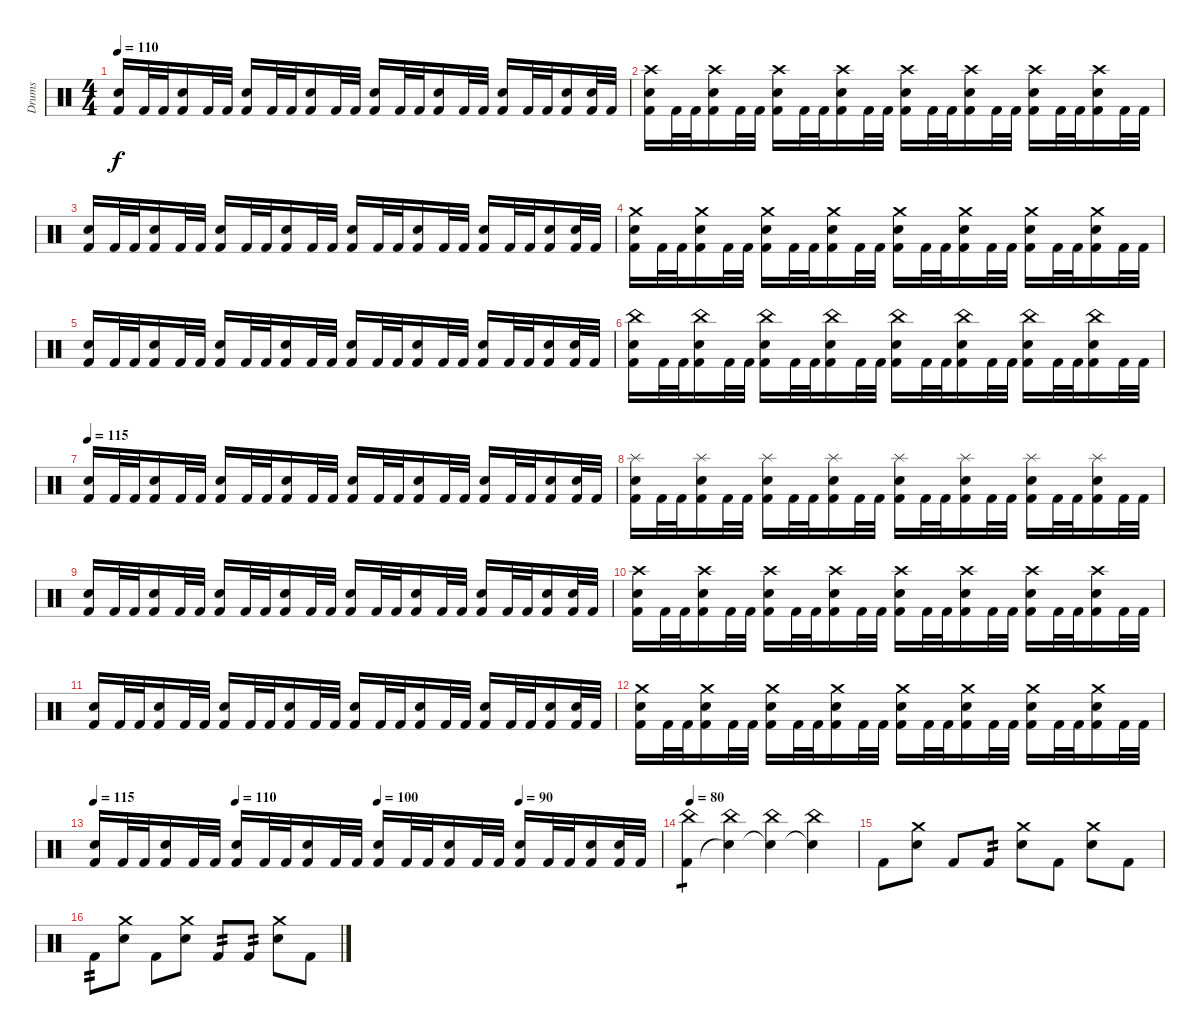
\track ("Drums" "Drums") {instrument percussion}
\staff {score}
\articulation defaults
\ts (4 4)
\tempo 110
\clef neutral
\ks c
("Electric Snare (hit)" "Kick (hit) 2").16{dy f} "Kick (hit) 2".32 "Kick (hit) 2".32 ("Electric Snare (hit)" "Kick (hit) 2").16 "Kick (hit) 2".32 "Kick (hit) 2".32 ("Electric Snare (hit)" "Kick (hit) 2").16 "Kick (hit) 2".32 "Kick (hit) 2".32 ("Electric Snare (hit)" "Kick (hit) 2").16 "Kick (hit) 2".32 "Kick (hit) 2".32 ("Electric Snare (hit)" "Kick (hit) 2").16 "Kick (hit) 2".32 "Kick (hit) 2".32 ("Electric Snare (hit)" "Kick (hit) 2").16 "Kick (hit) 2".32 "Kick (hit) 2".32 ("Electric Snare (hit)" "Kick (hit) 2").16 "Kick (hit) 2".32 "Kick (hit) 2".32 ("Electric Snare (hit)" "Kick (hit) 2").16 ("Electric Snare (hit)" "Kick (hit) 2").32 "Kick (hit) 2".32 |
("Crash high (hit)" "Electric Snare (hit)" "Kick (hit) 2").16 "Kick (hit) 2".32 "Kick (hit) 2".32 ("Crash high (hit)" "Electric Snare (hit)" "Kick (hit) 2").16 "Kick (hit) 2".32 "Kick (hit) 2".32 ("Crash high (hit)" "Electric Snare (hit)" "Kick (hit) 2").16 "Kick (hit) 2".32 "Kick (hit) 2".32 ("Crash high (hit)" "Electric Snare (hit)" "Kick (hit) 2").16 "Kick (hit) 2".32 "Kick (hit) 2".32 ("Crash high (hit)" "Electric Snare (hit)" "Kick (hit) 2").16 "Kick (hit) 2".32 "Kick (hit) 2".32 ("Crash high (hit)" "Electric Snare (hit)" "Kick (hit) 2").16 "Kick (hit) 2".32 "Kick (hit) 2".32 ("Crash high (hit)" "Electric Snare (hit)" "Kick (hit) 2").16 "Kick (hit) 2".32 "Kick (hit) 2".32 ("Crash high (hit)" "Electric Snare (hit)" "Kick (hit) 2").16 "Kick (hit) 2".32 "Kick (hit) 2".32 |
("Electric Snare (hit)" "Kick (hit) 2").16 "Kick (hit) 2".32 "Kick (hit) 2".32 ("Electric Snare (hit)" "Kick (hit) 2").16 "Kick (hit) 2".32 "Kick (hit) 2".32 ("Electric Snare (hit)" "Kick (hit) 2").16 "Kick (hit) 2".32 "Kick (hit) 2".32 ("Electric Snare (hit)" "Kick (hit) 2").16 "Kick (hit) 2".32 "Kick (hit) 2".32 ("Electric Snare (hit)" "Kick (hit) 2").16 "Kick (hit) 2".32 "Kick (hit) 2".32 ("Electric Snare (hit)" "Kick (hit) 2").16 "Kick (hit) 2".32 "Kick (hit) 2".32 ("Electric Snare (hit)" "Kick (hit) 2").16 "Kick (hit) 2".32 "Kick (hit) 2".32 ("Electric Snare (hit)" "Kick (hit) 2").16 ("Electric Snare (hit)" "Kick (hit) 2").32 "Kick (hit) 2".32 |
("Crash medium (hit)" "Electric Snare (hit)" "Kick (hit) 2").16 "Kick (hit) 2".32 "Kick (hit) 2".32 ("Crash medium (hit)" "Electric Snare (hit)" "Kick (hit) 2").16 "Kick (hit) 2".32 "Kick (hit) 2".32 ("Crash medium (hit)" "Electric Snare (hit)" "Kick (hit) 2").16 "Kick (hit) 2".32 "Kick (hit) 2".32 ("Crash medium (hit)" "Electric Snare (hit)" "Kick (hit) 2").16 "Kick (hit) 2".32 "Kick (hit) 2".32 ("Crash medium (hit)" "Electric Snare (hit)" "Kick (hit) 2").16 "Kick (hit) 2".32 "Kick (hit) 2".32 ("Crash medium (hit)" "Electric Snare (hit)" "Kick (hit) 2").16 "Kick (hit) 2".32 "Kick (hit) 2".32 ("Crash medium (hit)" "Electric Snare (hit)" "Kick (hit) 2").16 "Kick (hit) 2".32 "Kick (hit) 2".32 ("Crash medium (hit)" "Electric Snare (hit)" "Kick (hit) 2").16 "Kick (hit) 2".32 "Kick (hit) 2".32 |
("Electric Snare (hit)" "Kick (hit) 2").16 "Kick (hit) 2".32 "Kick (hit) 2".32 ("Electric Snare (hit)" "Kick (hit) 2").16 "Kick (hit) 2".32 "Kick (hit) 2".32 ("Electric Snare (hit)" "Kick (hit) 2").16 "Kick (hit) 2".32 "Kick (hit) 2".32 ("Electric Snare (hit)" "Kick (hit) 2").16 "Kick (hit) 2".32 "Kick (hit) 2".32 ("Electric Snare (hit)" "Kick (hit) 2").16 "Kick (hit) 2".32 "Kick (hit) 2".32 ("Electric Snare (hit)" "Kick (hit) 2").16 "Kick (hit) 2".32 "Kick (hit) 2".32 ("Electric Snare (hit)" "Kick (hit) 2").16 "Kick (hit) 2".32 "Kick (hit) 2".32 ("Electric Snare (hit)" "Kick (hit) 2").16 ("Electric Snare (hit)" "Kick (hit) 2").32 "Kick (hit) 2".32 |
("China (hit)" "Electric Snare (hit)" "Kick (hit) 2").16 "Kick (hit) 2".32 "Kick (hit) 2".32 ("China (hit)" "Electric Snare (hit)" "Kick (hit) 2").16 "Kick (hit) 2".32 "Kick (hit) 2".32 ("China (hit)" "Electric Snare (hit)" "Kick (hit) 2").16 "Kick (hit) 2".32 "Kick (hit) 2".32 ("China (hit)" "Electric Snare (hit)" "Kick (hit) 2").16 "Kick (hit) 2".32 "Kick (hit) 2".32 ("China (hit)" "Electric Snare (hit)" "Kick (hit) 2").16 "Kick (hit) 2".32 "Kick (hit) 2".32 ("China (hit)" "Electric Snare (hit)" "Kick (hit) 2").16 "Kick (hit) 2".32 "Kick (hit) 2".32 ("China (hit)" "Electric Snare (hit)" "Kick (hit) 2").16 "Kick (hit) 2".32 "Kick (hit) 2".32 ("China (hit)" "Electric Snare (hit)" "Kick (hit) 2").16 "Kick (hit) 2".32 "Kick (hit) 2".32 |
\tempo 115
("Electric Snare (hit)" "Kick (hit) 2").16 "Kick (hit) 2".32 "Kick (hit) 2".32 ("Electric Snare (hit)" "Kick (hit) 2").16 "Kick (hit) 2".32 "Kick (hit) 2".32 ("Electric Snare (hit)" "Kick (hit) 2").16 "Kick (hit) 2".32 "Kick (hit) 2".32 ("Electric Snare (hit)" "Kick (hit) 2").16 "Kick (hit) 2".32 "Kick (hit) 2".32 ("Electric Snare (hit)" "Kick (hit) 2").16 "Kick (hit) 2".32 "Kick (hit) 2".32 ("Electric Snare (hit)" "Kick (hit) 2").16 "Kick (hit) 2".32 "Kick (hit) 2".32 ("Electric Snare (hit)" "Kick (hit) 2").16 "Kick (hit) 2".32 "Kick (hit) 2".32 ("Electric Snare (hit)" "Kick (hit) 2").16 ("Electric Snare (hit)" "Kick (hit) 2").32 "Kick (hit) 2".32 |
("Splash (hit)" "Electric Snare (hit)" "Kick (hit) 2").16 "Kick (hit) 2".32 "Kick (hit) 2".32 ("Splash (hit)" "Electric Snare (hit)" "Kick (hit) 2").16 "Kick (hit) 2".32 "Kick (hit) 2".32 ("Splash (hit)" "Electric Snare (hit)" "Kick (hit) 2").16 "Kick (hit) 2".32 "Kick (hit) 2".32 ("Splash (hit)" "Electric Snare (hit)" "Kick (hit) 2").16 "Kick (hit) 2".32 "Kick (hit) 2".32 ("Splash (hit)" "Electric Snare (hit)" "Kick (hit) 2").16 "Kick (hit) 2".32 "Kick (hit) 2".32 ("Splash (hit)" "Electric Snare (hit)" "Kick (hit) 2").16 "Kick (hit) 2".32 "Kick (hit) 2".32 ("Splash (hit)" "Electric Snare (hit)" "Kick (hit) 2").16 "Kick (hit) 2".32 "Kick (hit) 2".32 ("Splash (hit)" "Electric Snare (hit)" "Kick (hit) 2").16 "Kick (hit) 2".32 "Kick (hit) 2".32 |
("Electric Snare (hit)" "Kick (hit) 2").16 "Kick (hit) 2".32 "Kick (hit) 2".32 ("Electric Snare (hit)" "Kick (hit) 2").16 "Kick (hit) 2".32 "Kick (hit) 2".32 ("Electric Snare (hit)" "Kick (hit) 2").16 "Kick (hit) 2".32 "Kick (hit) 2".32 ("Electric Snare (hit)" "Kick (hit) 2").16 "Kick (hit) 2".32 "Kick (hit) 2".32 ("Electric Snare (hit)" "Kick (hit) 2").16 "Kick (hit) 2".32 "Kick (hit) 2".32 ("Electric Snare (hit)" "Kick (hit) 2").16 "Kick (hit) 2".32 "Kick (hit) 2".32 ("Electric Snare (hit)" "Kick (hit) 2").16 "Kick (hit) 2".32 "Kick (hit) 2".32 ("Electric Snare (hit)" "Kick (hit) 2").16 ("Electric Snare (hit)" "Kick (hit) 2").32 "Kick (hit) 2".32 |
("Crash high (hit)" "Electric Snare (hit)" "Kick (hit) 2").16 "Kick (hit) 2".32 "Kick (hit) 2".32 ("Crash high (hit)" "Electric Snare (hit)" "Kick (hit) 2").16 "Kick (hit) 2".32 "Kick (hit) 2".32 ("Crash high (hit)" "Electric Snare (hit)" "Kick (hit) 2").16 "Kick (hit) 2".32 "Kick (hit) 2".32 ("Crash high (hit)" "Electric Snare (hit)" "Kick (hit) 2").16 "Kick (hit) 2".32 "Kick (hit) 2".32 ("Crash high (hit)" "Electric Snare (hit)" "Kick (hit) 2").16 "Kick (hit) 2".32 "Kick (hit) 2".32 ("Crash high (hit)" "Electric Snare (hit)" "Kick (hit) 2").16 "Kick (hit) 2".32 "Kick (hit) 2".32 ("Crash high (hit)" "Electric Snare (hit)" "Kick (hit) 2").16 "Kick (hit) 2".32 "Kick (hit) 2".32 ("Crash high (hit)" "Electric Snare (hit)" "Kick (hit) 2").16 "Kick (hit) 2".32 "Kick (hit) 2".32 |
("Electric Snare (hit)" "Kick (hit) 2").16 "Kick (hit) 2".32 "Kick (hit) 2".32 ("Electric Snare (hit)" "Kick (hit) 2").16 "Kick (hit) 2".32 "Kick (hit) 2".32 ("Electric Snare (hit)" "Kick (hit) 2").16 "Kick (hit) 2".32 "Kick (hit) 2".32 ("Electric Snare (hit)" "Kick (hit) 2").16 "Kick (hit) 2".32 "Kick (hit) 2".32 ("Electric Snare (hit)" "Kick (hit) 2").16 "Kick (hit) 2".32 "Kick (hit) 2".32 ("Electric Snare (hit)" "Kick (hit) 2").16 "Kick (hit) 2".32 "Kick (hit) 2".32 ("Electric Snare (hit)" "Kick (hit) 2").16 "Kick (hit) 2".32 "Kick (hit) 2".32 ("Electric Snare (hit)" "Kick (hit) 2").16 ("Electric Snare (hit)" "Kick (hit) 2").32 "Kick (hit) 2".32 |
("Crash medium (hit)" "Electric Snare (hit)" "Kick (hit) 2").16 "Kick (hit) 2".32 "Kick (hit) 2".32 ("Crash medium (hit)" "Electric Snare (hit)" "Kick (hit) 2").16 "Kick (hit) 2".32 "Kick (hit) 2".32 ("Crash medium (hit)" "Electric Snare (hit)" "Kick (hit) 2").16 "Kick (hit) 2".32 "Kick (hit) 2".32 ("Crash medium (hit)" "Electric Snare (hit)" "Kick (hit) 2").16 "Kick (hit) 2".32 "Kick (hit) 2".32 ("Crash medium (hit)" "Electric Snare (hit)" "Kick (hit) 2").16 "Kick (hit) 2".32 "Kick (hit) 2".32 ("Crash medium (hit)" "Electric Snare (hit)" "Kick (hit) 2").16 "Kick (hit) 2".32 "Kick (hit) 2".32 ("Crash medium (hit)" "Electric Snare (hit)" "Kick (hit) 2").16 "Kick (hit) 2".32 "Kick (hit) 2".32 ("Crash medium (hit)" "Electric Snare (hit)" "Kick (hit) 2").16 "Kick (hit) 2".32 "Kick (hit) 2".32 |
\tempo 115
\tempo (110 0.25)
\tempo (100 0.5)
\tempo (90 0.75)
("Electric Snare (hit)" "Kick (hit) 2").16 "Kick (hit) 2".32 "Kick (hit) 2".32 ("Electric Snare (hit)" "Kick (hit) 2").16 "Kick (hit) 2".32 "Kick (hit) 2".32 ("Electric Snare (hit)" "Kick (hit) 2").16 "Kick (hit) 2".32 "Kick (hit) 2".32 ("Electric Snare (hit)" "Kick (hit) 2").16 "Kick (hit) 2".32 "Kick (hit) 2".32 ("Electric Snare (hit)" "Kick (hit) 2").16 "Kick (hit) 2".32 "Kick (hit) 2".32 ("Electric Snare (hit)" "Kick (hit) 2").16 "Kick (hit) 2".32 "Kick (hit) 2".32 ("Electric Snare (hit)" "Kick (hit) 2").16 "Kick (hit) 2".32 "Kick (hit) 2".32 ("Electric Snare (hit)" "Kick (hit) 2").16 ("Electric Snare (hit)" "Kick (hit) 2").32 "Kick (hit) 2".32 |
\tempo 80
("China (hit)" "Kick (hit) 2").4{tp 1} ("China (hit)" "Snare (hit)"{t}).4 ("China (hit)" "Snare (hit)"{t}).4 ("China (hit)" "Snare (hit)"{t}).4 |
"Kick (hit) 2".8 ("Crash medium (hit)" "Electric Snare (hit)").8 "Kick (hit) 2".8 "Kick (hit) 2".8{tp 2} ("Crash medium (hit)" "Electric Snare (hit)").8 "Kick (hit) 2".8 ("Crash medium (hit)" "Electric Snare (hit)").8 "Kick (hit) 2".8 |
"Kick (hit) 2".8{tp 2} ("Crash medium (hit)" "Electric Snare (hit)").8 "Kick (hit) 2".8 ("Crash medium (hit)" "Electric Snare (hit)").8 "Kick (hit) 2".8{tp 2} "Kick (hit) 2".8{tp 2} ("Crash medium (hit)" "Electric Snare (hit)").8 "Kick (hit) 2".8
